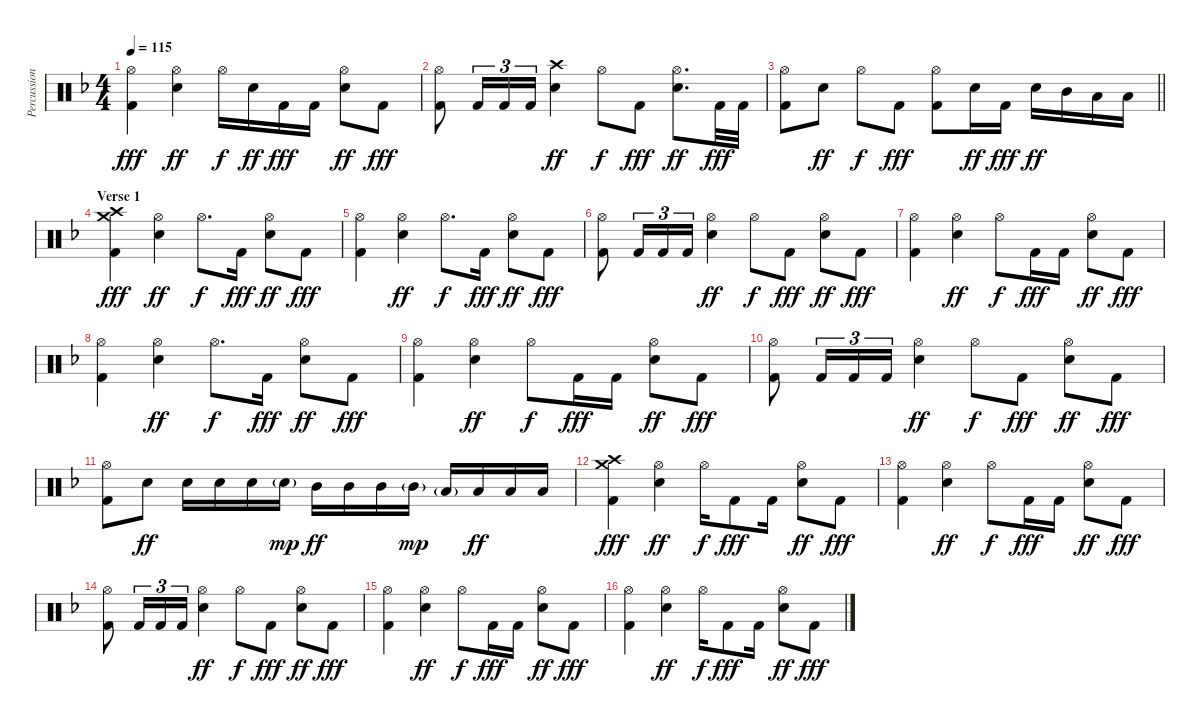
\track ("Percussion" "Percussion") {instrument percussion}
\staff {score}
\articulation defaults
\ts (4 4)
\tempo 115
\clef neutral
\ks dminor
("Hi-Hat (open)" "Kick (hit) 2").4{dy fff} ("Hi-Hat (open)" "Electric Snare (hit)").4{dy ff} "Hi-Hat (open)".16{dy f} "Electric Snare (hit)".16{dy ff} "Kick (hit) 2".16{dy fff} "Kick (hit) 2".16 ("Hi-Hat (open)" "Electric Snare (hit)").8{dy ff} "Kick (hit) 2".8{dy fff} |
("Hi-Hat (open)" "Kick (hit) 2").8 "Kick (hit) 2".16{tu (3 2)} "Kick (hit) 2".16{tu (3 2)} "Kick (hit) 2".16{tu (3 2)} ("Crash high (hit)" "Electric Snare (hit)").4{dy ff} "Hi-Hat (open)".8{dy f} "Kick (hit) 2".8{dy fff} ("Hi-Hat (open)" "Electric Snare (hit)").8{d dy ff} "Kick (hit) 2".32{dy fff} "Kick (hit) 2".32 |
\barLineRight lightlight
("Hi-Hat (open)" "Kick (hit) 2").8 "Electric Snare (hit)".8{dy ff} "Hi-Hat (open)".8{dy f} "Kick (hit) 2".8{dy fff} ("Hi-Hat (open)" "Kick (hit) 2").8 "Electric Snare (hit)".16{dy ff} "Kick (hit) 2".16{dy fff} "Electric Snare (hit)".16{dy ff} "Mid Tom (hit)".16 "Low Tom (hit)".16 "Low Tom (hit)".16 |
\section ("" "Verse 1")
("Crash high (hit)" "Crash medium (hit)" "Kick (hit) 2").4{dy fff} ("Hi-Hat (open)" "Electric Snare (hit)").4{dy ff} "Hi-Hat (open)".8{d dy f} "Kick (hit) 2".16{dy fff} ("Hi-Hat (open)" "Electric Snare (hit)").8{dy ff} "Kick (hit) 2".8{dy fff} |
("Hi-Hat (open)" "Kick (hit) 2").4 ("Hi-Hat (open)" "Electric Snare (hit)").4{dy ff} "Hi-Hat (open)".8{d dy f} "Kick (hit) 2".16{dy fff} ("Hi-Hat (open)" "Electric Snare (hit)").8{dy ff} "Kick (hit) 2".8{dy fff} |
("Hi-Hat (open)" "Kick (hit) 2").8 "Kick (hit) 2".16{tu (3 2)} "Kick (hit) 2".16{tu (3 2)} "Kick (hit) 2".16{tu (3 2)} ("Hi-Hat (open)" "Electric Snare (hit)").4{dy ff} "Hi-Hat (open)".8{dy f} "Kick (hit) 2".8{dy fff} ("Hi-Hat (open)" "Electric Snare (hit)").8{dy ff} "Kick (hit) 2".8{dy fff} |
("Hi-Hat (open)" "Kick (hit) 2").4 ("Hi-Hat (open)" "Electric Snare (hit)").4{dy ff} "Hi-Hat (open)".8{dy f} "Kick (hit) 2".16{dy fff} "Kick (hit) 2".16 ("Hi-Hat (open)" "Electric Snare (hit)").8{dy ff} "Kick (hit) 2".8{dy fff} |
("Hi-Hat (open)" "Kick (hit) 2").4 ("Hi-Hat (open)" "Electric Snare (hit)").4{dy ff} "Hi-Hat (open)".8{d dy f} "Kick (hit) 2".16{dy fff} ("Hi-Hat (open)" "Electric Snare (hit)").8{dy ff} "Kick (hit) 2".8{dy fff} |
("Hi-Hat (open)" "Kick (hit) 2").4 ("Hi-Hat (open)" "Electric Snare (hit)").4{dy ff} "Hi-Hat (open)".8{dy f} "Kick (hit) 2".16{dy fff} "Kick (hit) 2".16 ("Hi-Hat (open)" "Electric Snare (hit)").8{dy ff} "Kick (hit) 2".8{dy fff} |
("Hi-Hat (open)" "Kick (hit) 2").8 "Kick (hit) 2".16{tu (3 2)} "Kick (hit) 2".16{tu (3 2)} "Kick (hit) 2".16{tu (3 2)} ("Hi-Hat (open)" "Electric Snare (hit)").4{dy ff} "Hi-Hat (open)".8{dy f} "Kick (hit) 2".8{dy fff} ("Hi-Hat (open)" "Electric Snare (hit)").8{dy ff} "Kick (hit) 2".8{dy fff} |
("Hi-Hat (open)" "Kick (hit) 2").8 "Electric Snare (hit)".8{dy ff} "Electric Snare (hit)".16 "Electric Snare (hit)".16 "Electric Snare (hit)".16 "Electric Snare (hit)"{g}.16{dy mp} "Mid Tom (hit)".16{dy ff} "Mid Tom (hit)".16 "Mid Tom (hit)".16 "Mid Tom (hit)"{g}.16{dy mp} "Low Tom (hit)"{g}.16 "Low Tom (hit)".16{dy ff} "Low Tom (hit)".16 "Low Tom (hit)".16 |
("Crash high (hit)" "Crash medium (hit)" "Kick (hit) 2").4{dy fff} ("Hi-Hat (open)" "Electric Snare (hit)").4{dy ff} "Hi-Hat (open)".16{dy f} "Kick (hit) 2".8{dy fff} "Kick (hit) 2".16 ("Hi-Hat (open)" "Electric Snare (hit)").8{dy ff} "Kick (hit) 2".8{dy fff} |
("Hi-Hat (open)" "Kick (hit) 2").4 ("Hi-Hat (open)" "Electric Snare (hit)").4{dy ff} "Hi-Hat (open)".8{dy f} "Kick (hit) 2".16{dy fff} "Kick (hit) 2".16 ("Hi-Hat (open)" "Electric Snare (hit)").8{dy ff} "Kick (hit) 2".8{dy fff} |
("Hi-Hat (open)" "Kick (hit) 2").8 "Kick (hit) 2".16{tu (3 2)} "Kick (hit) 2".16{tu (3 2)} "Kick (hit) 2".16{tu (3 2)} ("Hi-Hat (open)" "Electric Snare (hit)").4{dy ff} "Hi-Hat (open)".8{dy f} "Kick (hit) 2".8{dy fff} ("Hi-Hat (open)" "Electric Snare (hit)").8{dy ff} "Kick (hit) 2".8{dy fff} |
("Hi-Hat (open)" "Kick (hit) 2").4 ("Hi-Hat (open)" "Electric Snare (hit)").4{dy ff} "Hi-Hat (open)".8{dy f} "Kick (hit) 2".16{dy fff} "Kick (hit) 2".16 ("Hi-Hat (open)" "Electric Snare (hit)").8{dy ff} "Kick (hit) 2".8{dy fff} |
("Hi-Hat (open)" "Kick (hit) 2").4 ("Hi-Hat (open)" "Electric Snare (hit)").4{dy ff} "Hi-Hat (open)".16{dy f} "Kick (hit) 2".8{dy fff} "Kick (hit) 2".16 ("Hi-Hat (open)" "Electric Snare (hit)").8{dy ff} "Kick (hit) 2".8{dy fff}
